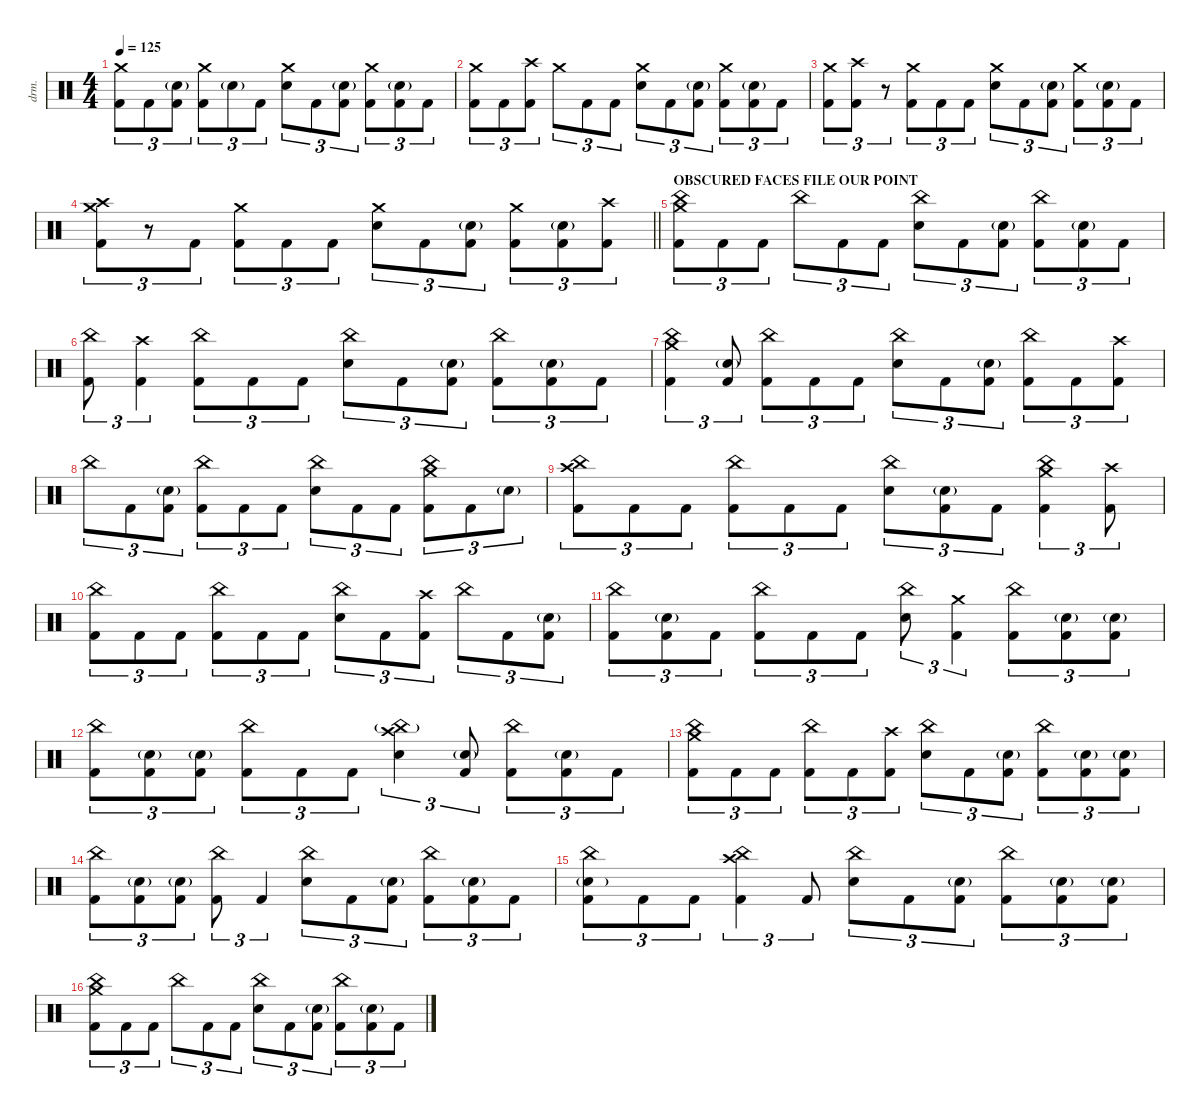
\defaultSystemsLayout 4
\hideDynamics
\bracketExtendMode nobrackets
\track ("DRUMS (Thomas Haake)" "drm.") {instrument percussion}
\staff {score}
\articulation defaults
\ts (4 4)
\tempo 125
\clef neutral
\ks c
("Crash medium (hit)" "Kick (hit) 2").8{tu (3 2) dy f} "Kick (hit) 2".8{tu (3 2)} ("Snare (hit) 2"{g} "Kick (hit) 2").8{tu (3 2)} ("Crash medium (hit)" "Kick (hit) 2").8{tu (3 2)} "Snare (hit) 2"{g}.8{tu (3 2) dy p} "Kick (hit) 2".8{tu (3 2) dy f} ("Crash medium (hit)" "Snare (hit) 2").8{tu (3 2)} "Kick (hit) 2".8{tu (3 2)} ("Snare (hit) 2"{g} "Kick (hit) 2").8{tu (3 2)} ("Crash medium (hit)" "Kick (hit) 2").8{tu (3 2)} ("Snare (hit) 2"{g} "Kick (hit) 2").8{tu (3 2)} "Kick (hit) 2".8{tu (3 2)} |
("Crash medium (hit)" "Kick (hit) 2").8{tu (3 2)} "Kick (hit) 2".8{tu (3 2)} ("Crash high (hit)" "Kick (hit) 2").8{tu (3 2) dy mf} "Crash medium (hit)".8{tu (3 2) dy f} "Kick (hit) 2".8{tu (3 2)} "Kick (hit) 2".8{tu (3 2)} ("Crash medium (hit)" "Snare (hit) 2").8{tu (3 2)} "Kick (hit) 2".8{tu (3 2)} ("Snare (hit) 2"{g} "Kick (hit) 2").8{tu (3 2)} ("Crash medium (hit)" "Kick (hit) 2").8{tu (3 2)} ("Snare (hit) 2"{g} "Kick (hit) 2").8{tu (3 2)} "Kick (hit) 2".8{tu (3 2)} |
("Crash medium (hit)" "Kick (hit) 2").8{tu (3 2)} ("Crash high (hit)" "Kick (hit) 2").8{tu (3 2) dy mf} r.8{tu (3 2)} ("Crash medium (hit)" "Kick (hit) 2").8{tu (3 2) dy f} "Kick (hit) 2".8{tu (3 2)} "Kick (hit) 2".8{tu (3 2)} ("Crash medium (hit)" "Snare (hit) 2").8{tu (3 2)} "Kick (hit) 2".8{tu (3 2)} ("Snare (hit) 2"{g} "Kick (hit) 2").8{tu (3 2)} ("Crash medium (hit)" "Kick (hit) 2").8{tu (3 2)} ("Snare (hit) 2"{g} "Kick (hit) 2").8{tu (3 2)} "Kick (hit) 2".8{tu (3 2)} |
\barLineRight lightlight
("Crash medium (hit)" "Crash high (hit)" "Kick (hit) 2").8{tu (3 2)} r.8{tu (3 2)} "Kick (hit) 2".8{tu (3 2)} ("Crash medium (hit)" "Kick (hit) 2").8{tu (3 2)} "Kick (hit) 2".8{tu (3 2)} "Kick (hit) 2".8{tu (3 2)} ("Crash medium (hit)" "Snare (hit) 2").8{tu (3 2)} "Kick (hit) 2".8{tu (3 2)} ("Snare (hit) 2"{g} "Kick (hit) 2").8{tu (3 2)} ("Crash medium (hit)" "Kick (hit) 2").8{tu (3 2)} ("Snare (hit) 2"{g} "Kick (hit) 2").8{tu (3 2)} ("Crash high (hit)" "Kick (hit) 2").8{tu (3 2) dy mf} |
\section ("" "OBSCURED FACES FILE OUR POINT")
("China (hit)" "Crash medium (hit)" "Kick (hit) 2").8{tu (3 2) dy f} "Kick (hit) 2".8{tu (3 2)} "Kick (hit) 2".8{tu (3 2)} "China (hit)".8{tu (3 2)} "Kick (hit) 2".8{tu (3 2)} "Kick (hit) 2".8{tu (3 2)} ("China (hit)" "Snare (hit) 2").8{tu (3 2)} "Kick (hit) 2".8{tu (3 2)} ("Snare (hit) 2"{g} "Kick (hit) 2").8{tu (3 2)} ("China (hit)" "Kick (hit) 2").8{tu (3 2)} ("Snare (hit) 2"{g} "Kick (hit) 2").8{tu (3 2)} "Kick (hit) 2".8{tu (3 2)} |
("China (hit)" "Kick (hit) 2").8{tu (3 2)} ("Crash high (hit)" "Kick (hit) 2").4{tu (3 2)} ("China (hit)" "Kick (hit) 2").8{tu (3 2)} "Kick (hit) 2".8{tu (3 2)} "Kick (hit) 2".8{tu (3 2)} ("China (hit)" "Snare (hit) 2").8{tu (3 2)} "Kick (hit) 2".8{tu (3 2)} ("Snare (hit) 2"{g} "Kick (hit) 2").8{tu (3 2)} ("China (hit)" "Kick (hit) 2").8{tu (3 2)} ("Snare (hit) 2"{g} "Kick (hit) 2").8{tu (3 2)} "Kick (hit) 2".8{tu (3 2)} |
("China (hit)" "Crash medium (hit)" "Kick (hit) 2").4{tu (3 2)} ("Snare (hit) 2"{g} "Kick (hit) 2").8{tu (3 2)} ("China (hit)" "Kick (hit) 2").8{tu (3 2)} "Kick (hit) 2".8{tu (3 2)} "Kick (hit) 2".8{tu (3 2)} ("China (hit)" "Snare (hit) 2").8{tu (3 2)} "Kick (hit) 2".8{tu (3 2)} ("Snare (hit) 2"{g} "Kick (hit) 2").8{tu (3 2)} ("China (hit)" "Kick (hit) 2").8{tu (3 2)} "Kick (hit) 2".8{tu (3 2)} ("Crash high (hit)" "Kick (hit) 2").8{tu (3 2)} |
"China (hit)".8{tu (3 2)} "Kick (hit) 2".8{tu (3 2)} ("Snare (hit) 2"{g} "Kick (hit) 2").8{tu (3 2)} ("China (hit)" "Kick (hit) 2").8{tu (3 2)} "Kick (hit) 2".8{tu (3 2)} "Kick (hit) 2".8{tu (3 2)} ("China (hit)" "Snare (hit) 2").8{tu (3 2)} "Kick (hit) 2".8{tu (3 2)} "Kick (hit) 2".8{tu (3 2)} ("China (hit)" "Crash medium (hit)" "Kick (hit) 2").8{tu (3 2)} "Kick (hit) 2".8{tu (3 2)} "Snare (hit) 2"{g}.8{tu (3 2) dy p} |
("China (hit)" "Crash high (hit)" "Kick (hit) 2").8{tu (3 2) dy f} "Kick (hit) 2".8{tu (3 2)} "Kick (hit) 2".8{tu (3 2)} ("China (hit)" "Kick (hit) 2").8{tu (3 2)} "Kick (hit) 2".8{tu (3 2)} "Kick (hit) 2".8{tu (3 2)} ("China (hit)" "Snare (hit) 2").8{tu (3 2)} ("Snare (hit) 2"{g} "Kick (hit) 2").8{tu (3 2)} "Kick (hit) 2".8{tu (3 2)} ("China (hit)" "Crash medium (hit)" "Kick (hit) 2").4{tu (3 2)} ("Crash high (hit)" "Kick (hit) 2").8{tu (3 2)} |
("China (hit)" "Kick (hit) 2").8{tu (3 2)} "Kick (hit) 2".8{tu (3 2)} "Kick (hit) 2".8{tu (3 2)} ("China (hit)" "Kick (hit) 2").8{tu (3 2)} "Kick (hit) 2".8{tu (3 2)} "Kick (hit) 2".8{tu (3 2)} ("China (hit)" "Snare (hit) 2").8{tu (3 2)} "Kick (hit) 2".8{tu (3 2)} ("Crash high (hit)" "Kick (hit) 2").8{tu (3 2)} "China (hit)".8{tu (3 2)} "Kick (hit) 2".8{tu (3 2)} ("Snare (hit) 2"{g} "Kick (hit) 2").8{tu (3 2)} |
("China (hit)" "Kick (hit) 2").8{tu (3 2)} ("Snare (hit) 2"{g} "Kick (hit) 2").8{tu (3 2)} "Kick (hit) 2".8{tu (3 2)} ("China (hit)" "Kick (hit) 2").8{tu (3 2)} "Kick (hit) 2".8{tu (3 2)} "Kick (hit) 2".8{tu (3 2)} ("China (hit)" "Snare (hit) 2").8{tu (3 2)} ("Crash medium (hit)" "Kick (hit) 2").4{tu (3 2)} ("China (hit)" "Kick (hit) 2").8{tu (3 2)} ("Snare (hit) 2"{g} "Kick (hit) 2").8{tu (3 2)} ("Snare (hit) 2"{g} "Kick (hit) 2").8{tu (3 2)} |
("China (hit)" "Kick (hit) 2").8{tu (3 2)} ("Snare (hit) 2"{g} "Kick (hit) 2").8{tu (3 2)} ("Snare (hit) 2"{g} "Kick (hit) 2").8{tu (3 2)} ("China (hit)" "Kick (hit) 2").8{tu (3 2)} "Kick (hit) 2".8{tu (3 2)} "Kick (hit) 2".8{tu (3 2)} ("Crash high (hit)" "China (hit)"{g} "Snare (hit) 2").4{tu (3 2)} ("Snare (hit) 2"{g} "Kick (hit) 2").8{tu (3 2)} ("China (hit)" "Kick (hit) 2").8{tu (3 2)} ("Snare (hit) 2"{g} "Kick (hit) 2").8{tu (3 2)} "Kick (hit) 2".8{tu (3 2)} |
("China (hit)" "Crash medium (hit)" "Kick (hit) 2").8{tu (3 2)} "Kick (hit) 2".8{tu (3 2)} "Kick (hit) 2".8{tu (3 2)} ("China (hit)" "Kick (hit) 2").8{tu (3 2)} "Kick (hit) 2".8{tu (3 2)} ("Crash high (hit)" "Kick (hit) 2").8{tu (3 2)} ("China (hit)" "Snare (hit) 2").8{tu (3 2)} "Kick (hit) 2".8{tu (3 2)} ("Snare (hit) 2"{g} "Kick (hit) 2").8{tu (3 2)} ("China (hit)" "Kick (hit) 2").8{tu (3 2)} ("Snare (hit) 2"{g} "Kick (hit) 2").8{tu (3 2)} ("Snare (hit) 2"{g} "Kick (hit) 2").8{tu (3 2)} |
("China (hit)" "Kick (hit) 2").8{tu (3 2)} ("Snare (hit) 2"{g} "Kick (hit) 2").8{tu (3 2)} ("Snare (hit) 2"{g} "Kick (hit) 2").8{tu (3 2)} ("China (hit)" "Kick (hit) 2").8{tu (3 2)} "Kick (hit) 2".4{tu (3 2)} ("China (hit)" "Snare (hit) 2").8{tu (3 2)} "Kick (hit) 2".8{tu (3 2)} ("Snare (hit) 2"{g} "Kick (hit) 2").8{tu (3 2)} ("China (hit)" "Kick (hit) 2").8{tu (3 2)} ("Snare (hit) 2"{g} "Kick (hit) 2").8{tu (3 2)} "Kick (hit) 2".8{tu (3 2)} |
("China (hit)" "Snare (hit) 2"{g} "Kick (hit) 2").8{tu (3 2)} "Kick (hit) 2".8{tu (3 2)} "Kick (hit) 2".8{tu (3 2)} ("China (hit)" "Crash high (hit)" "Kick (hit) 2").4{tu (3 2)} "Kick (hit) 2".8{tu (3 2)} ("China (hit)" "Snare (hit) 2").8{tu (3 2)} "Kick (hit) 2".8{tu (3 2)} ("Snare (hit) 2"{g} "Kick (hit) 2").8{tu (3 2)} ("China (hit)" "Kick (hit) 2").8{tu (3 2)} ("Snare (hit) 2"{g} "Kick (hit) 2").8{tu (3 2)} ("Snare (hit) 2"{g} "Kick (hit) 2").8{tu (3 2)} |
("China (hit)" "Crash medium (hit)" "Kick (hit) 2").8{tu (3 2)} "Kick (hit) 2".8{tu (3 2)} "Kick (hit) 2".8{tu (3 2)} "China (hit)".8{tu (3 2)} "Kick (hit) 2".8{tu (3 2)} "Kick (hit) 2".8{tu (3 2)} ("China (hit)" "Snare (hit) 2").8{tu (3 2)} "Kick (hit) 2".8{tu (3 2)} ("Snare (hit) 2"{g} "Kick (hit) 2").8{tu (3 2)} ("China (hit)" "Kick (hit) 2").8{tu (3 2)} ("Snare (hit) 2"{g} "Kick (hit) 2").8{tu (3 2)} "Kick (hit) 2".8{tu (3 2)}
